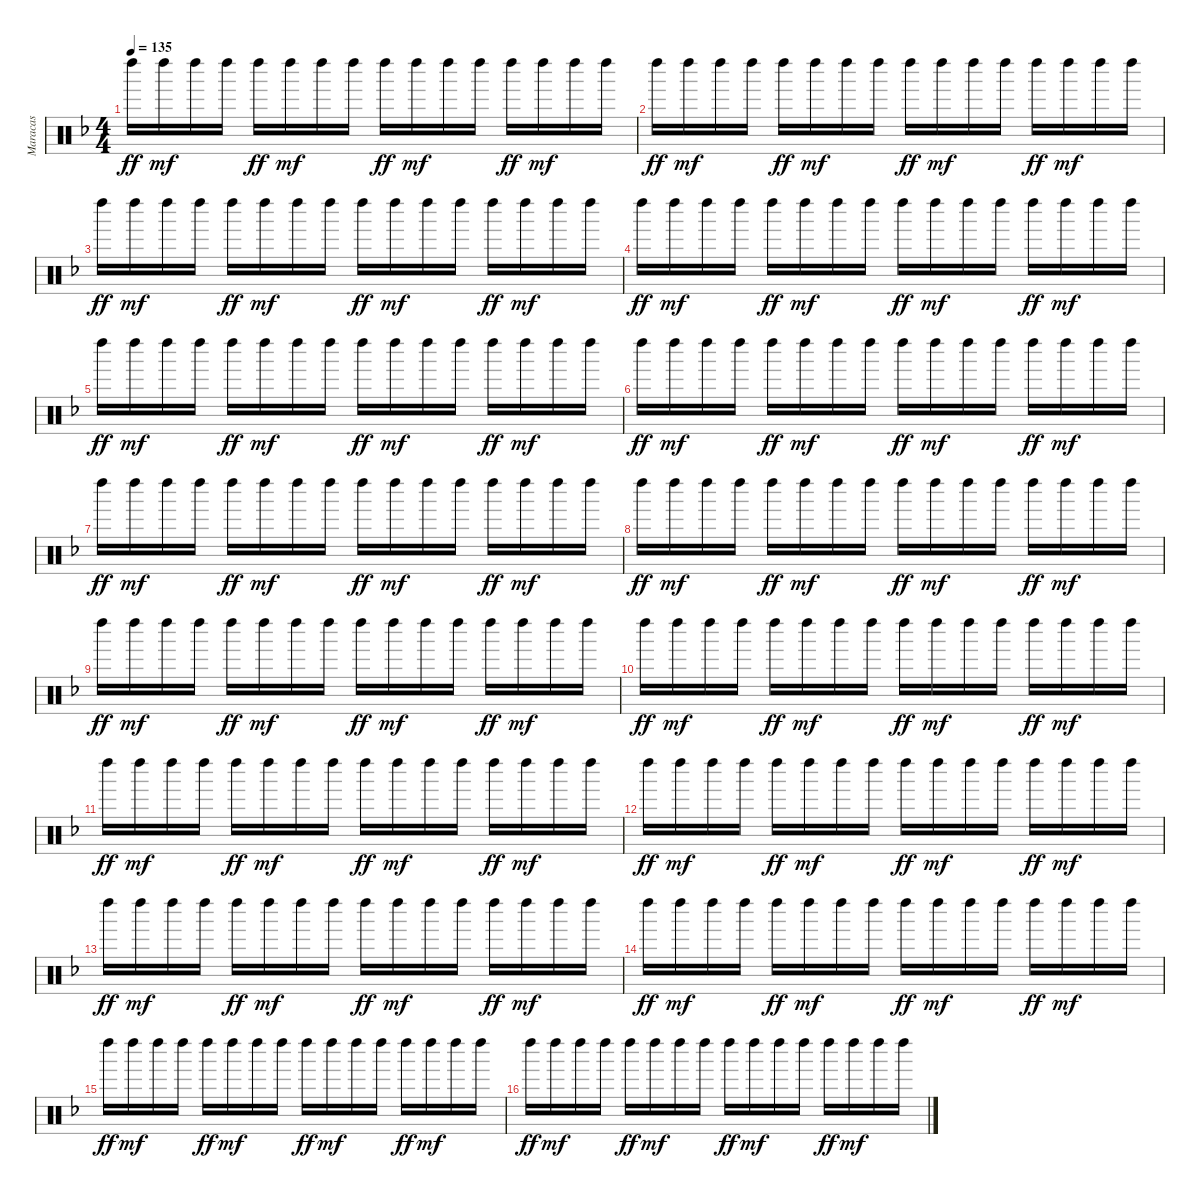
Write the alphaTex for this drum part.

\track ("Maracas" "Maracas") {instrument percussion}
\staff {score}
\articulation defaults
\ts (4 4)
\tempo 135
\clef neutral
\ks f "Left Maraca (hit)".16{dy ff} "Left Maraca (hit)".16{dy mf} "Left Maraca (hit)".16 "Left Maraca (hit)".16 "Left Maraca (hit)".16{dy ff} "Left Maraca (hit)".16{dy mf} "Left Maraca (hit)".16 "Left Maraca (hit)".16 "Left Maraca (hit)".16{dy ff} "Left Maraca (hit)".16{dy mf} "Left Maraca (hit)".16 "Left Maraca (hit)".16 "Left Maraca (hit)".16{dy ff} "Left Maraca (hit)".16{dy mf} "Left Maraca (hit)".16 "Left Maraca (hit)".16
|
"Left Maraca (hit)".16{dy ff} "Left Maraca (hit)".16{dy mf} "Left Maraca (hit)".16 "Left Maraca (hit)".16 "Left Maraca (hit)".16{dy ff} "Left Maraca (hit)".16{dy mf} "Left Maraca (hit)".16 "Left Maraca (hit)".16 "Left Maraca (hit)".16{dy ff} "Left Maraca (hit)".16{dy mf} "Left Maraca (hit)".16 "Left Maraca (hit)".16 "Left Maraca (hit)".16{dy ff} "Left Maraca (hit)".16{dy mf} "Left Maraca (hit)".16 "Left Maraca (hit)".16 |
"Left Maraca (hit)".16{dy ff} "Left Maraca (hit)".16{dy mf} "Left Maraca (hit)".16 "Left Maraca (hit)".16 "Left Maraca (hit)".16{dy ff} "Left Maraca (hit)".16{dy mf} "Left Maraca (hit)".16 "Left Maraca (hit)".16 "Left Maraca (hit)".16{dy ff} "Left Maraca (hit)".16{dy mf} "Left Maraca (hit)".16 "Left Maraca (hit)".16 "Left Maraca (hit)".16{dy ff} "Left Maraca (hit)".16{dy mf} "Left Maraca (hit)".16 "Left Maraca (hit)".16 |
"Left Maraca (hit)".16{dy ff} "Left Maraca (hit)".16{dy mf} "Left Maraca (hit)".16 "Left Maraca (hit)".16 "Left Maraca (hit)".16{dy ff} "Left Maraca (hit)".16{dy mf} "Left Maraca (hit)".16 "Left Maraca (hit)".16 "Left Maraca (hit)".16{dy ff} "Left Maraca (hit)".16{dy mf} "Left Maraca (hit)".16 "Left Maraca (hit)".16 "Left Maraca (hit)".16{dy ff} "Left Maraca (hit)".16{dy mf} "Left Maraca (hit)".16 "Left Maraca (hit)".16 |
"Left Maraca (hit)".16{dy ff} "Left Maraca (hit)".16{dy mf} "Left Maraca (hit)".16 "Left Maraca (hit)".16 "Left Maraca (hit)".16{dy ff} "Left Maraca (hit)".16{dy mf} "Left Maraca (hit)".16 "Left Maraca (hit)".16 "Left Maraca (hit)".16{dy ff} "Left Maraca (hit)".16{dy mf} "Left Maraca (hit)".16 "Left Maraca (hit)".16 "Left Maraca (hit)".16{dy ff} "Left Maraca (hit)".16{dy mf} "Left Maraca (hit)".16 "Left Maraca (hit)".16 |
"Left Maraca (hit)".16{dy ff} "Left Maraca (hit)".16{dy mf} "Left Maraca (hit)".16 "Left Maraca (hit)".16 "Left Maraca (hit)".16{dy ff} "Left Maraca (hit)".16{dy mf} "Left Maraca (hit)".16 "Left Maraca (hit)".16 "Left Maraca (hit)".16{dy ff} "Left Maraca (hit)".16{dy mf} "Left Maraca (hit)".16 "Left Maraca (hit)".16 "Left Maraca (hit)".16{dy ff} "Left Maraca (hit)".16{dy mf} "Left Maraca (hit)".16 "Left Maraca (hit)".16 |
"Left Maraca (hit)".16{dy ff} "Left Maraca (hit)".16{dy mf} "Left Maraca (hit)".16 "Left Maraca (hit)".16 "Left Maraca (hit)".16{dy ff} "Left Maraca (hit)".16{dy mf} "Left Maraca (hit)".16 "Left Maraca (hit)".16 "Left Maraca (hit)".16{dy ff} "Left Maraca (hit)".16{dy mf} "Left Maraca (hit)".16 "Left Maraca (hit)".16 "Left Maraca (hit)".16{dy ff} "Left Maraca (hit)".16{dy mf} "Left Maraca (hit)".16 "Left Maraca (hit)".16 |
"Left Maraca (hit)".16{dy ff} "Left Maraca (hit)".16{dy mf} "Left Maraca (hit)".16 "Left Maraca (hit)".16 "Left Maraca (hit)".16{dy ff} "Left Maraca (hit)".16{dy mf} "Left Maraca (hit)".16 "Left Maraca (hit)".16 "Left Maraca (hit)".16{dy ff} "Left Maraca (hit)".16{dy mf} "Left Maraca (hit)".16 "Left Maraca (hit)".16 "Left Maraca (hit)".16{dy ff} "Left Maraca (hit)".16{dy mf} "Left Maraca (hit)".16 "Left Maraca (hit)".16 |
"Left Maraca (hit)".16{dy ff} "Left Maraca (hit)".16{dy mf} "Left Maraca (hit)".16 "Left Maraca (hit)".16 "Left Maraca (hit)".16{dy ff} "Left Maraca (hit)".16{dy mf} "Left Maraca (hit)".16 "Left Maraca (hit)".16 "Left Maraca (hit)".16{dy ff} "Left Maraca (hit)".16{dy mf} "Left Maraca (hit)".16 "Left Maraca (hit)".16 "Left Maraca (hit)".16{dy ff} "Left Maraca (hit)".16{dy mf} "Left Maraca (hit)".16 "Left Maraca (hit)".16 |
"Left Maraca (hit)".16{dy ff} "Left Maraca (hit)".16{dy mf} "Left Maraca (hit)".16 "Left Maraca (hit)".16 "Left Maraca (hit)".16{dy ff} "Left Maraca (hit)".16{dy mf} "Left Maraca (hit)".16 "Left Maraca (hit)".16 "Left Maraca (hit)".16{dy ff} "Left Maraca (hit)".16{dy mf} "Left Maraca (hit)".16 "Left Maraca (hit)".16 "Left Maraca (hit)".16{dy ff} "Left Maraca (hit)".16{dy mf} "Left Maraca (hit)".16 "Left Maraca (hit)".16 |
"Left Maraca (hit)".16{dy ff} "Left Maraca (hit)".16{dy mf} "Left Maraca (hit)".16 "Left Maraca (hit)".16 "Left Maraca (hit)".16{dy ff} "Left Maraca (hit)".16{dy mf} "Left Maraca (hit)".16 "Left Maraca (hit)".16 "Left Maraca (hit)".16{dy ff} "Left Maraca (hit)".16{dy mf} "Left Maraca (hit)".16 "Left Maraca (hit)".16 "Left Maraca (hit)".16{dy ff} "Left Maraca (hit)".16{dy mf} "Left Maraca (hit)".16 "Left Maraca (hit)".16 |
"Left Maraca (hit)".16{dy ff} "Left Maraca (hit)".16{dy mf} "Left Maraca (hit)".16 "Left Maraca (hit)".16 "Left Maraca (hit)".16{dy ff} "Left Maraca (hit)".16{dy mf} "Left Maraca (hit)".16 "Left Maraca (hit)".16 "Left Maraca (hit)".16{dy ff} "Left Maraca (hit)".16{dy mf} "Left Maraca (hit)".16 "Left Maraca (hit)".16 "Left Maraca (hit)".16{dy ff} "Left Maraca (hit)".16{dy mf} "Left Maraca (hit)".16 "Left Maraca (hit)".16 |
"Left Maraca (hit)".16{dy ff} "Left Maraca (hit)".16{dy mf} "Left Maraca (hit)".16 "Left Maraca (hit)".16 "Left Maraca (hit)".16{dy ff} "Left Maraca (hit)".16{dy mf} "Left Maraca (hit)".16 "Left Maraca (hit)".16 "Left Maraca (hit)".16{dy ff} "Left Maraca (hit)".16{dy mf} "Left Maraca (hit)".16 "Left Maraca (hit)".16 "Left Maraca (hit)".16{dy ff} "Left Maraca (hit)".16{dy mf} "Left Maraca (hit)".16 "Left Maraca (hit)".16 |
"Left Maraca (hit)".16{dy ff} "Left Maraca (hit)".16{dy mf} "Left Maraca (hit)".16 "Left Maraca (hit)".16 "Left Maraca (hit)".16{dy ff} "Left Maraca (hit)".16{dy mf} "Left Maraca (hit)".16 "Left Maraca (hit)".16 "Left Maraca (hit)".16{dy ff} "Left Maraca (hit)".16{dy mf} "Left Maraca (hit)".16 "Left Maraca (hit)".16 "Left Maraca (hit)".16{dy ff} "Left Maraca (hit)".16{dy mf} "Left Maraca (hit)".16 "Left Maraca (hit)".16 |
"Left Maraca (hit)".16{dy ff} "Left Maraca (hit)".16{dy mf} "Left Maraca (hit)".16 "Left Maraca (hit)".16 "Left Maraca (hit)".16{dy ff} "Left Maraca (hit)".16{dy mf} "Left Maraca (hit)".16 "Left Maraca (hit)".16 "Left Maraca (hit)".16{dy ff} "Left Maraca (hit)".16{dy mf} "Left Maraca (hit)".16 "Left Maraca (hit)".16 "Left Maraca (hit)".16{dy ff} "Left Maraca (hit)".16{dy mf} "Left Maraca (hit)".16 "Left Maraca (hit)".16 |
"Left Maraca (hit)".16{dy ff} "Left Maraca (hit)".16{dy mf} "Left Maraca (hit)".16 "Left Maraca (hit)".16 "Left Maraca (hit)".16{dy ff} "Left Maraca (hit)".16{dy mf} "Left Maraca (hit)".16 "Left Maraca (hit)".16 "Left Maraca (hit)".16{dy ff} "Left Maraca (hit)".16{dy mf} "Left Maraca (hit)".16 "Left Maraca (hit)".16 "Left Maraca (hit)".16{dy ff} "Left Maraca (hit)".16{dy mf} "Left Maraca (hit)".16 "Left Maraca (hit)".16
